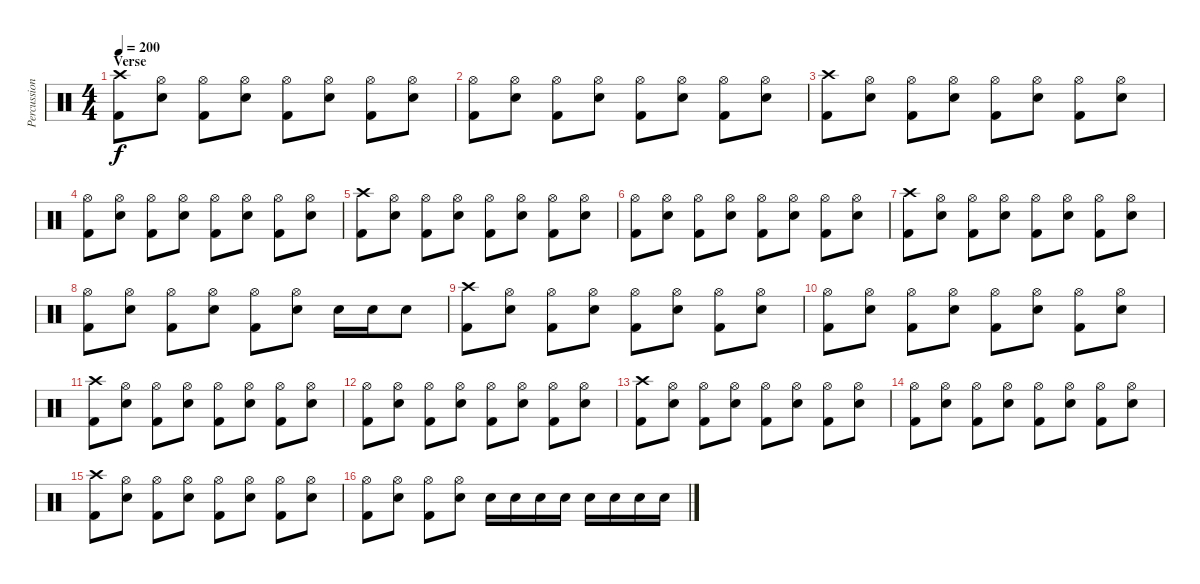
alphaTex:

\track ("Percussion" "Percussion") {instrument percussion}
\staff {score}
\articulation defaults
\ts (4 4)
\section ("" "Verse")
\tempo 200
\clef neutral
\ks c
("Crash high (hit)" "Kick (hit) 2").8{dy f} ("Hi-Hat (open)" "Snare (hit) 2").8 ("Hi-Hat (open)" "Kick (hit) 2").8 ("Hi-Hat (open)" "Snare (hit) 2").8 ("Hi-Hat (open)" "Kick (hit) 2").8 ("Hi-Hat (open)" "Snare (hit) 2").8 ("Hi-Hat (open)" "Kick (hit) 2").8 ("Hi-Hat (open)" "Snare (hit) 2").8 |
("Hi-Hat (open)" "Kick (hit) 2").8 ("Hi-Hat (open)" "Snare (hit) 2").8 ("Hi-Hat (open)" "Kick (hit) 2").8 ("Hi-Hat (open)" "Snare (hit) 2").8 ("Hi-Hat (open)" "Kick (hit) 2").8 ("Hi-Hat (open)" "Snare (hit) 2").8 ("Hi-Hat (open)" "Kick (hit) 2").8 ("Hi-Hat (open)" "Snare (hit) 2").8 |
("Crash high (hit)" "Kick (hit) 2").8 ("Hi-Hat (open)" "Snare (hit) 2").8 ("Hi-Hat (open)" "Kick (hit) 2").8 ("Hi-Hat (open)" "Snare (hit) 2").8 ("Hi-Hat (open)" "Kick (hit) 2").8 ("Hi-Hat (open)" "Snare (hit) 2").8 ("Hi-Hat (open)" "Kick (hit) 2").8 ("Hi-Hat (open)" "Snare (hit) 2").8 |
("Hi-Hat (open)" "Kick (hit) 2").8 ("Hi-Hat (open)" "Snare (hit) 2").8 ("Hi-Hat (open)" "Kick (hit) 2").8 ("Hi-Hat (open)" "Snare (hit) 2").8 ("Hi-Hat (open)" "Kick (hit) 2").8 ("Hi-Hat (open)" "Snare (hit) 2").8 ("Hi-Hat (open)" "Kick (hit) 2").8 ("Hi-Hat (open)" "Snare (hit) 2").8 |
("Crash high (hit)" "Kick (hit) 2").8 ("Hi-Hat (open)" "Snare (hit) 2").8 ("Hi-Hat (open)" "Kick (hit) 2").8 ("Hi-Hat (open)" "Snare (hit) 2").8 ("Hi-Hat (open)" "Kick (hit) 2").8 ("Hi-Hat (open)" "Snare (hit) 2").8 ("Hi-Hat (open)" "Kick (hit) 2").8 ("Hi-Hat (open)" "Snare (hit) 2").8 |
("Hi-Hat (open)" "Kick (hit) 2").8 ("Hi-Hat (open)" "Snare (hit) 2").8 ("Hi-Hat (open)" "Kick (hit) 2").8 ("Hi-Hat (open)" "Snare (hit) 2").8 ("Hi-Hat (open)" "Kick (hit) 2").8 ("Hi-Hat (open)" "Snare (hit) 2").8 ("Hi-Hat (open)" "Kick (hit) 2").8 ("Hi-Hat (open)" "Snare (hit) 2").8 |
("Crash high (hit)" "Kick (hit) 2").8 ("Hi-Hat (open)" "Snare (hit) 2").8 ("Hi-Hat (open)" "Kick (hit) 2").8 ("Hi-Hat (open)" "Snare (hit) 2").8 ("Hi-Hat (open)" "Kick (hit) 2").8 ("Hi-Hat (open)" "Snare (hit) 2").8 ("Hi-Hat (open)" "Kick (hit) 2").8 ("Hi-Hat (open)" "Snare (hit) 2").8 |
("Hi-Hat (open)" "Kick (hit) 2").8 ("Hi-Hat (open)" "Snare (hit) 2").8 ("Hi-Hat (open)" "Kick (hit) 2").8 ("Hi-Hat (open)" "Snare (hit) 2").8 ("Hi-Hat (open)" "Kick (hit) 2").8 ("Hi-Hat (open)" "Snare (hit) 2").8 "Snare (hit) 2".16 "Snare (hit) 2".16 "Snare (hit) 2".8 |
("Crash high (hit)" "Kick (hit) 2").8 ("Hi-Hat (open)" "Snare (hit) 2").8 ("Hi-Hat (open)" "Kick (hit) 2").8 ("Hi-Hat (open)" "Snare (hit) 2").8 ("Hi-Hat (open)" "Kick (hit) 2").8 ("Hi-Hat (open)" "Snare (hit) 2").8 ("Hi-Hat (open)" "Kick (hit) 2").8 ("Hi-Hat (open)" "Snare (hit) 2").8 |
("Hi-Hat (open)" "Kick (hit) 2").8 ("Hi-Hat (open)" "Snare (hit) 2").8 ("Hi-Hat (open)" "Kick (hit) 2").8 ("Hi-Hat (open)" "Snare (hit) 2").8 ("Hi-Hat (open)" "Kick (hit) 2").8 ("Hi-Hat (open)" "Snare (hit) 2").8 ("Hi-Hat (open)" "Kick (hit) 2").8 ("Hi-Hat (open)" "Snare (hit) 2").8 |
("Crash high (hit)" "Kick (hit) 2").8 ("Hi-Hat (open)" "Snare (hit) 2").8 ("Hi-Hat (open)" "Kick (hit) 2").8 ("Hi-Hat (open)" "Snare (hit) 2").8 ("Hi-Hat (open)" "Kick (hit) 2").8 ("Hi-Hat (open)" "Snare (hit) 2").8 ("Hi-Hat (open)" "Kick (hit) 2").8 ("Hi-Hat (open)" "Snare (hit) 2").8 |
("Hi-Hat (open)" "Kick (hit) 2").8 ("Hi-Hat (open)" "Snare (hit) 2").8 ("Hi-Hat (open)" "Kick (hit) 2").8 ("Hi-Hat (open)" "Snare (hit) 2").8 ("Hi-Hat (open)" "Kick (hit) 2").8 ("Hi-Hat (open)" "Snare (hit) 2").8 ("Hi-Hat (open)" "Kick (hit) 2").8 ("Hi-Hat (open)" "Snare (hit) 2").8 |
("Crash high (hit)" "Kick (hit) 2").8 ("Hi-Hat (open)" "Snare (hit) 2").8 ("Hi-Hat (open)" "Kick (hit) 2").8 ("Hi-Hat (open)" "Snare (hit) 2").8 ("Hi-Hat (open)" "Kick (hit) 2").8 ("Hi-Hat (open)" "Snare (hit) 2").8 ("Hi-Hat (open)" "Kick (hit) 2").8 ("Hi-Hat (open)" "Snare (hit) 2").8 |
("Hi-Hat (open)" "Kick (hit) 2").8 ("Hi-Hat (open)" "Snare (hit) 2").8 ("Hi-Hat (open)" "Kick (hit) 2").8 ("Hi-Hat (open)" "Snare (hit) 2").8 ("Hi-Hat (open)" "Kick (hit) 2").8 ("Hi-Hat (open)" "Snare (hit) 2").8 ("Hi-Hat (open)" "Kick (hit) 2").8 ("Hi-Hat (open)" "Snare (hit) 2").8 |
("Crash high (hit)" "Kick (hit) 2").8 ("Hi-Hat (open)" "Snare (hit) 2").8 ("Hi-Hat (open)" "Kick (hit) 2").8 ("Hi-Hat (open)" "Snare (hit) 2").8 ("Hi-Hat (open)" "Kick (hit) 2").8 ("Hi-Hat (open)" "Snare (hit) 2").8 ("Hi-Hat (open)" "Kick (hit) 2").8 ("Hi-Hat (open)" "Snare (hit) 2").8 |
("Hi-Hat (open)" "Kick (hit) 2").8 ("Hi-Hat (open)" "Snare (hit) 2").8 ("Hi-Hat (open)" "Kick (hit) 2").8 ("Hi-Hat (open)" "Snare (hit) 2").8 "Snare (hit) 2".16 "Snare (hit) 2".16 "Snare (hit) 2".16 "Snare (hit) 2".16 "Snare (hit) 2".16 "Snare (hit) 2".16 "Snare (hit) 2".16 "Snare (hit) 2".16
